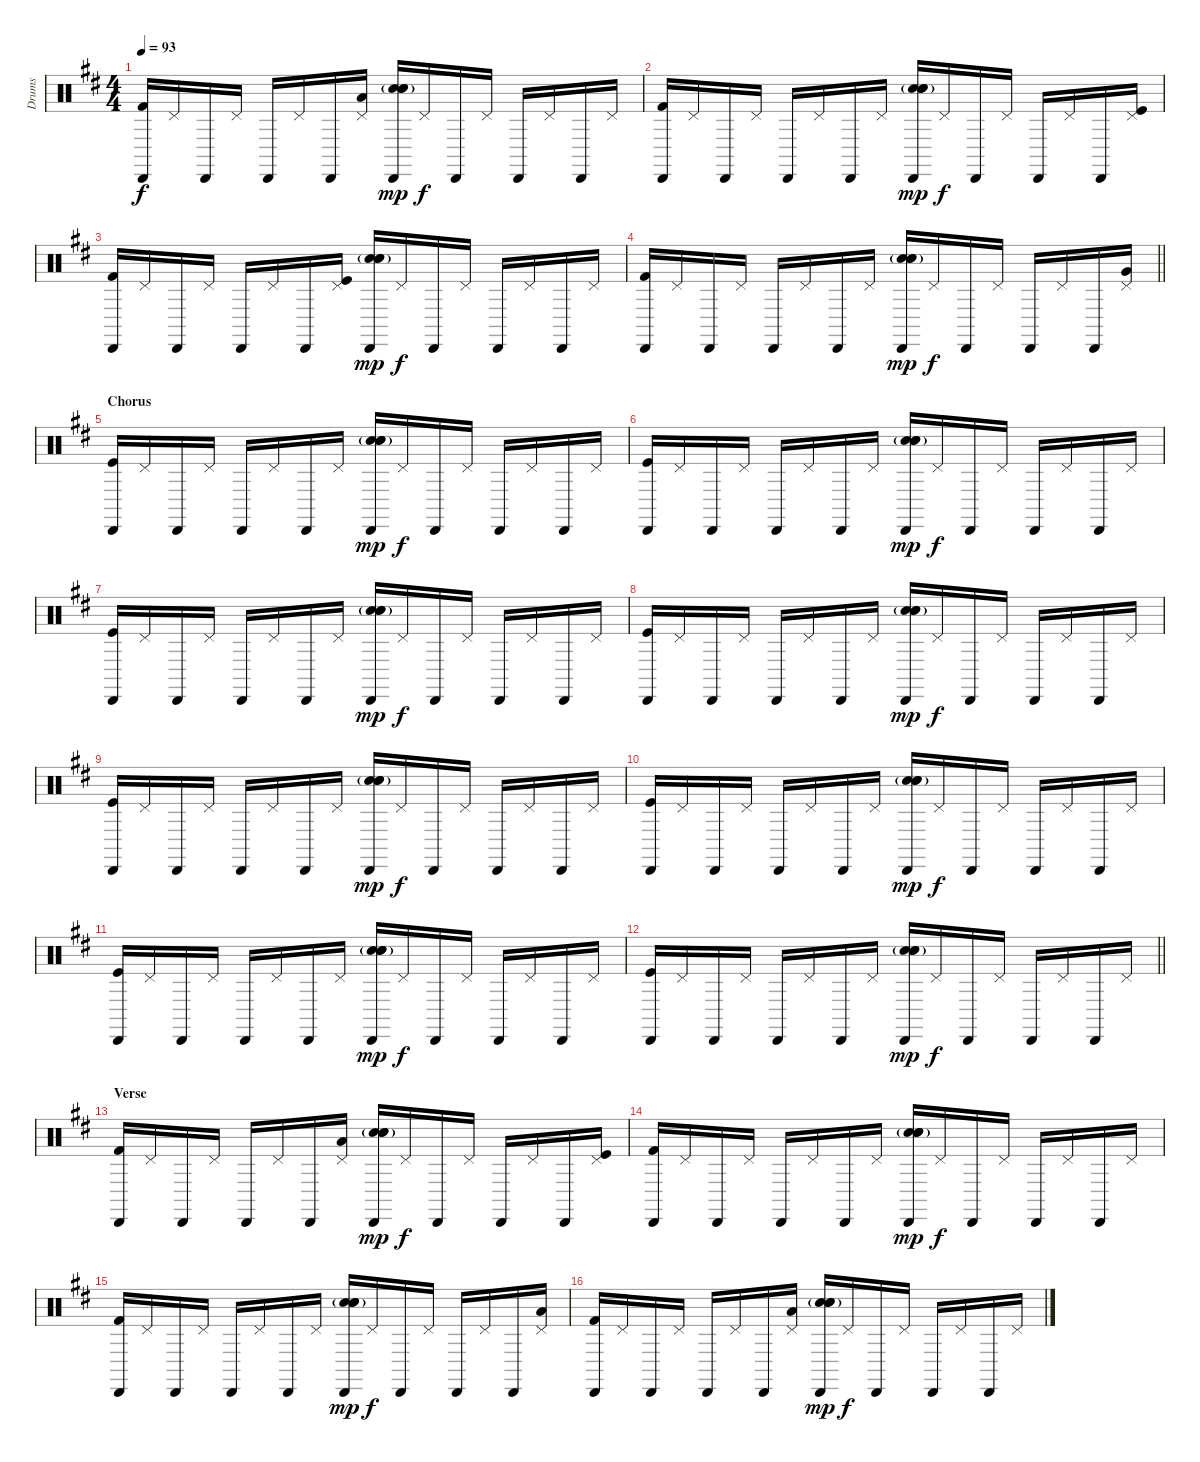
\track ("Drums" "Drums") {instrument percussion}
\staff {score}
\articulation defaults
\ts (4 4)
\tempo 93
\clef neutral
\ks d
("Cabasa (hit)" "Kick (hit) 2").16{dy f} "Pedal Hi-Hat (hit)".16 "Cabasa (hit)".16 "Pedal Hi-Hat (hit)".16 "Cabasa (hit)".16 "Pedal Hi-Hat (hit)".16 "Cabasa (hit)".16 ("Pedal Hi-Hat (hit)" "Low Tom (hit)").16 ("Cabasa (hit)" "Snare (hit) 2"{g} "Electric Snare (hit)"{g} "Electric Snare (hit)").16{dy mp} "Pedal Hi-Hat (hit)".16{dy f} "Cabasa (hit)".16 "Pedal Hi-Hat (hit)".16 "Cabasa (hit)".16 "Pedal Hi-Hat (hit)".16 "Cabasa (hit)".16 "Pedal Hi-Hat (hit)".16 |
("Cabasa (hit)" "Kick (hit) 2").16 "Pedal Hi-Hat (hit)".16 "Cabasa (hit)".16 "Pedal Hi-Hat (hit)".16 "Cabasa (hit)".16 "Pedal Hi-Hat (hit)".16 "Cabasa (hit)".16 "Pedal Hi-Hat (hit)".16 ("Cabasa (hit)" "Snare (hit) 2"{g} "Electric Snare (hit)"{g} "Electric Snare (hit)").16{dy mp} "Pedal Hi-Hat (hit)".16{dy f} "Cabasa (hit)".16 "Pedal Hi-Hat (hit)".16 "Cabasa (hit)".16 "Pedal Hi-Hat (hit)".16 "Cabasa (hit)".16 ("Pedal Hi-Hat (hit)" "Kick (hit)").16 |
("Cabasa (hit)" "Kick (hit) 2").16 "Pedal Hi-Hat (hit)".16 "Cabasa (hit)".16 "Pedal Hi-Hat (hit)".16 "Cabasa (hit)".16 "Pedal Hi-Hat (hit)".16 "Cabasa (hit)".16 ("Pedal Hi-Hat (hit)" "Kick (hit)").16 ("Cabasa (hit)" "Snare (hit) 2"{g} "Electric Snare (hit)"{g} "Electric Snare (hit)").16{dy mp} "Pedal Hi-Hat (hit)".16{dy f} "Cabasa (hit)".16 "Pedal Hi-Hat (hit)".16 "Cabasa (hit)".16 "Pedal Hi-Hat (hit)".16 "Cabasa (hit)".16 "Pedal Hi-Hat (hit)".16 |
\barLineRight lightlight
("Cabasa (hit)" "Kick (hit) 2").16 "Pedal Hi-Hat (hit)".16 "Cabasa (hit)".16 "Pedal Hi-Hat (hit)".16 "Cabasa (hit)".16 "Pedal Hi-Hat (hit)".16 "Cabasa (hit)".16 "Pedal Hi-Hat (hit)".16 ("Cabasa (hit)" "Snare (hit) 2"{g} "Electric Snare (hit)"{g} "Electric Snare (hit)").16{dy mp} "Pedal Hi-Hat (hit)".16{dy f} "Cabasa (hit)".16 "Pedal Hi-Hat (hit)".16 "Cabasa (hit)".16 "Pedal Hi-Hat (hit)".16 "Cabasa (hit)".16 ("Pedal Hi-Hat (hit)" "Very Low Tom (hit)").16 |
\section ("" "Chorus")
("Cabasa (hit)" "Kick (hit)").16 "Pedal Hi-Hat (hit)".16 "Cabasa (hit)".16 "Pedal Hi-Hat (hit)".16 "Cabasa (hit)".16 "Pedal Hi-Hat (hit)".16 "Cabasa (hit)".16 "Pedal Hi-Hat (hit)".16 ("Cabasa (hit)" "Snare (hit) 2"{g} "Electric Snare (hit)"{g} "Electric Snare (hit)").16{dy mp} "Pedal Hi-Hat (hit)".16{dy f} "Cabasa (hit)".16 "Pedal Hi-Hat (hit)".16 "Cabasa (hit)".16 "Pedal Hi-Hat (hit)".16 "Cabasa (hit)".16 "Pedal Hi-Hat (hit)".16 |
("Cabasa (hit)" "Kick (hit)").16 "Pedal Hi-Hat (hit)".16 "Cabasa (hit)".16 "Pedal Hi-Hat (hit)".16 "Cabasa (hit)".16 "Pedal Hi-Hat (hit)".16 "Cabasa (hit)".16 "Pedal Hi-Hat (hit)".16 ("Cabasa (hit)" "Snare (hit) 2"{g} "Electric Snare (hit)"{g} "Electric Snare (hit)").16{dy mp} "Pedal Hi-Hat (hit)".16{dy f} "Cabasa (hit)".16 "Pedal Hi-Hat (hit)".16 "Cabasa (hit)".16 "Pedal Hi-Hat (hit)".16 "Cabasa (hit)".16 "Pedal Hi-Hat (hit)".16 |
("Cabasa (hit)" "Kick (hit)").16 "Pedal Hi-Hat (hit)".16 "Cabasa (hit)".16 "Pedal Hi-Hat (hit)".16 "Cabasa (hit)".16 "Pedal Hi-Hat (hit)".16 "Cabasa (hit)".16 "Pedal Hi-Hat (hit)".16 ("Cabasa (hit)" "Snare (hit) 2"{g} "Electric Snare (hit)"{g} "Electric Snare (hit)").16{dy mp} "Pedal Hi-Hat (hit)".16{dy f} "Cabasa (hit)".16 "Pedal Hi-Hat (hit)".16 "Cabasa (hit)".16 "Pedal Hi-Hat (hit)".16 "Cabasa (hit)".16 "Pedal Hi-Hat (hit)".16 |
("Cabasa (hit)" "Kick (hit)").16 "Pedal Hi-Hat (hit)".16 "Cabasa (hit)".16 "Pedal Hi-Hat (hit)".16 "Cabasa (hit)".16 "Pedal Hi-Hat (hit)".16 "Cabasa (hit)".16 "Pedal Hi-Hat (hit)".16 ("Cabasa (hit)" "Snare (hit) 2"{g} "Electric Snare (hit)"{g} "Electric Snare (hit)").16{dy mp} "Pedal Hi-Hat (hit)".16{dy f} "Cabasa (hit)".16 "Pedal Hi-Hat (hit)".16 "Cabasa (hit)".16 "Pedal Hi-Hat (hit)".16 "Cabasa (hit)".16 "Pedal Hi-Hat (hit)".16 |
("Cabasa (hit)" "Kick (hit)").16 "Pedal Hi-Hat (hit)".16 "Cabasa (hit)".16 "Pedal Hi-Hat (hit)".16 "Cabasa (hit)".16 "Pedal Hi-Hat (hit)".16 "Cabasa (hit)".16 "Pedal Hi-Hat (hit)".16 ("Cabasa (hit)" "Snare (hit) 2"{g} "Electric Snare (hit)"{g} "Electric Snare (hit)").16{dy mp} "Pedal Hi-Hat (hit)".16{dy f} "Cabasa (hit)".16 "Pedal Hi-Hat (hit)".16 "Cabasa (hit)".16 "Pedal Hi-Hat (hit)".16 "Cabasa (hit)".16 "Pedal Hi-Hat (hit)".16 |
("Cabasa (hit)" "Kick (hit)").16 "Pedal Hi-Hat (hit)".16 "Cabasa (hit)".16 "Pedal Hi-Hat (hit)".16 "Cabasa (hit)".16 "Pedal Hi-Hat (hit)".16 "Cabasa (hit)".16 "Pedal Hi-Hat (hit)".16 ("Cabasa (hit)" "Snare (hit) 2"{g} "Electric Snare (hit)"{g} "Electric Snare (hit)").16{dy mp} "Pedal Hi-Hat (hit)".16{dy f} "Cabasa (hit)".16 "Pedal Hi-Hat (hit)".16 "Cabasa (hit)".16 "Pedal Hi-Hat (hit)".16 "Cabasa (hit)".16 "Pedal Hi-Hat (hit)".16 |
("Cabasa (hit)" "Kick (hit)").16 "Pedal Hi-Hat (hit)".16 "Cabasa (hit)".16 "Pedal Hi-Hat (hit)".16 "Cabasa (hit)".16 "Pedal Hi-Hat (hit)".16 "Cabasa (hit)".16 "Pedal Hi-Hat (hit)".16 ("Cabasa (hit)" "Snare (hit) 2"{g} "Electric Snare (hit)"{g} "Electric Snare (hit)").16{dy mp} "Pedal Hi-Hat (hit)".16{dy f} "Cabasa (hit)".16 "Pedal Hi-Hat (hit)".16 "Cabasa (hit)".16 "Pedal Hi-Hat (hit)".16 "Cabasa (hit)".16 "Pedal Hi-Hat (hit)".16 |
\barLineRight lightlight
("Cabasa (hit)" "Kick (hit)").16 "Pedal Hi-Hat (hit)".16 "Cabasa (hit)".16 "Pedal Hi-Hat (hit)".16 "Cabasa (hit)".16 "Pedal Hi-Hat (hit)".16 "Cabasa (hit)".16 "Pedal Hi-Hat (hit)".16 ("Cabasa (hit)" "Snare (hit) 2"{g} "Electric Snare (hit)"{g} "Electric Snare (hit)").16{dy mp} "Pedal Hi-Hat (hit)".16{dy f} "Cabasa (hit)".16 "Pedal Hi-Hat (hit)".16 "Cabasa (hit)".16 "Pedal Hi-Hat (hit)".16 "Cabasa (hit)".16 "Pedal Hi-Hat (hit)".16 |
\section ("" "Verse")
("Cabasa (hit)" "Kick (hit) 2").16 "Pedal Hi-Hat (hit)".16 "Cabasa (hit)".16 "Pedal Hi-Hat (hit)".16 "Cabasa (hit)".16 "Pedal Hi-Hat (hit)".16 "Cabasa (hit)".16 ("Pedal Hi-Hat (hit)" "Low Tom (hit)").16 ("Cabasa (hit)" "Snare (hit) 2"{g} "Electric Snare (hit)"{g} "Electric Snare (hit)").16{dy mp} "Pedal Hi-Hat (hit)".16{dy f} "Cabasa (hit)".16 "Pedal Hi-Hat (hit)".16 "Cabasa (hit)".16 "Pedal Hi-Hat (hit)".16 "Cabasa (hit)".16 ("Pedal Hi-Hat (hit)" "Kick (hit)").16 |
("Cabasa (hit)" "Kick (hit) 2").16 "Pedal Hi-Hat (hit)".16 "Cabasa (hit)".16 "Pedal Hi-Hat (hit)".16 "Cabasa (hit)".16 "Pedal Hi-Hat (hit)".16 "Cabasa (hit)".16 "Pedal Hi-Hat (hit)".16 ("Cabasa (hit)" "Snare (hit) 2"{g} "Electric Snare (hit)"{g} "Electric Snare (hit)").16{dy mp} "Pedal Hi-Hat (hit)".16{dy f} "Cabasa (hit)".16 "Pedal Hi-Hat (hit)".16 "Cabasa (hit)".16 "Pedal Hi-Hat (hit)".16 "Cabasa (hit)".16 "Pedal Hi-Hat (hit)".16 |
("Cabasa (hit)" "Kick (hit) 2").16 "Pedal Hi-Hat (hit)".16 "Cabasa (hit)".16 "Pedal Hi-Hat (hit)".16 "Cabasa (hit)".16 "Pedal Hi-Hat (hit)".16 "Cabasa (hit)".16 "Pedal Hi-Hat (hit)".16 ("Cabasa (hit)" "Snare (hit) 2"{g} "Electric Snare (hit)"{g} "Electric Snare (hit)").16{dy mp} "Pedal Hi-Hat (hit)".16{dy f} "Cabasa (hit)".16 "Pedal Hi-Hat (hit)".16 "Cabasa (hit)".16 "Pedal Hi-Hat (hit)".16 "Cabasa (hit)".16 ("Pedal Hi-Hat (hit)" "Low Tom (hit)").16 |
("Cabasa (hit)" "Kick (hit) 2").16 "Pedal Hi-Hat (hit)".16 "Cabasa (hit)".16 "Pedal Hi-Hat (hit)".16 "Cabasa (hit)".16 "Pedal Hi-Hat (hit)".16 "Cabasa (hit)".16 ("Pedal Hi-Hat (hit)" "Low Tom (hit)").16 ("Cabasa (hit)" "Snare (hit) 2"{g} "Electric Snare (hit)"{g} "Electric Snare (hit)").16{dy mp} "Pedal Hi-Hat (hit)".16{dy f} "Cabasa (hit)".16 "Pedal Hi-Hat (hit)".16 "Cabasa (hit)".16 "Pedal Hi-Hat (hit)".16 "Cabasa (hit)".16 "Pedal Hi-Hat (hit)".16
